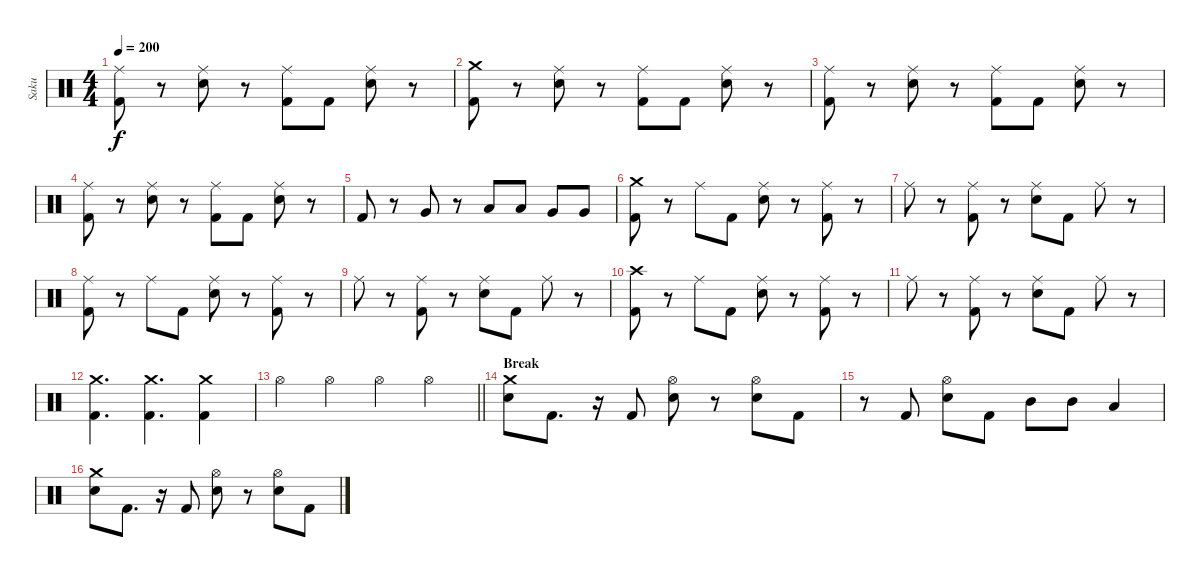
\track ("Saku" "Saku") {instrument percussion}
\staff {score}
\articulation defaults
\ts (4 4)
\tempo 200
\clef neutral
\ks c
("Ride (middle)" "Kick (hit) 2").8{dy f} r.8 ("Ride (middle)" "Electric Snare (hit)").8 r.8 ("Ride (middle)" "Kick (hit) 2").8 "Kick (hit) 2".8 ("Ride (middle)" "Electric Snare (hit)").8 r.8 |
("Crash medium (hit)" "Kick (hit) 2").8 r.8 ("Ride (middle)" "Electric Snare (hit)").8 r.8 ("Ride (middle)" "Kick (hit) 2").8 "Kick (hit) 2".8 ("Ride (middle)" "Electric Snare (hit)").8 r.8 |
("Ride (middle)" "Kick (hit) 2").8 r.8 ("Ride (middle)" "Electric Snare (hit)").8 r.8 ("Ride (middle)" "Kick (hit) 2").8 "Kick (hit) 2".8 ("Ride (middle)" "Electric Snare (hit)").8 r.8 |
("Ride (middle)" "Kick (hit) 2").8 r.8 ("Ride (middle)" "Electric Snare (hit)").8 r.8 ("Ride (middle)" "Kick (hit) 2").8 "Kick (hit) 2".8 ("Ride (middle)" "Electric Snare (hit)").8 r.8 |
"Kick (hit) 2".8 r.8 "Very Low Tom (hit)".8 r.8 "Low Tom (hit)".8 "Low Tom (hit)".8 "Very Low Tom (hit)".8 "Very Low Tom (hit)".8 |
("Crash medium (hit)" "Kick (hit) 2").8 r.8 "Ride (middle)".8 "Kick (hit) 2".8 ("Ride (middle)" "Electric Snare (hit)").8 r.8 ("Ride (middle)" "Kick (hit) 2").8 r.8 |
"Ride (middle)".8 r.8 ("Ride (middle)" "Kick (hit) 2").8 r.8 ("Ride (middle)" "Electric Snare (hit)").8 "Kick (hit) 2".8 "Ride (middle)".8 r.8 |
("Ride (middle)" "Kick (hit) 2").8 r.8 "Ride (middle)".8 "Kick (hit) 2".8 ("Ride (middle)" "Electric Snare (hit)").8 r.8 ("Ride (middle)" "Kick (hit) 2").8 r.8 |
"Ride (middle)".8 r.8 ("Ride (middle)" "Kick (hit) 2").8 r.8 ("Ride (middle)" "Electric Snare (hit)").8 "Kick (hit) 2".8 "Ride (middle)".8 r.8 |
("Crash high (hit)" "Kick (hit) 2").8 r.8 "Ride (middle)".8 "Kick (hit) 2".8 ("Ride (middle)" "Electric Snare (hit)").8 r.8 ("Ride (middle)" "Kick (hit) 2").8 r.8 |
"Ride (middle)".8 r.8 ("Ride (middle)" "Kick (hit) 2").8 r.8 ("Ride (middle)" "Electric Snare (hit)").8 "Kick (hit) 2".8 "Ride (middle)".8 r.8 |
("Crash medium (hit)" "Kick (hit) 2").4{d} ("Crash medium (hit)" "Kick (hit) 2").4{d} ("Crash medium (hit)" "Kick (hit) 2").4 |
\barLineRight lightlight "Hi-Hat (open)".4 "Hi-Hat (open)".4 "Hi-Hat (open)".4 "Hi-Hat (open)".4
|
\section ("" "Break")
("Crash medium (hit)" "Electric Snare (hit)").8 "Kick (hit) 2".8{d} r.16 "Kick (hit) 2".8 ("Hi-Hat (open)" "Electric Snare (hit)").8 r.8 ("Hi-Hat (open)" "Electric Snare (hit)").8 "Kick (hit) 2".8 |
r.8 "Kick (hit) 2".8 ("Hi-Hat (open)" "Electric Snare (hit)").8 "Kick (hit) 2".8 "Mid Tom (hit)".8 "Mid Tom (hit)".8 "Low Tom (hit)".4 |
("Crash medium (hit)" "Electric Snare (hit)").8 "Kick (hit) 2".8{d} r.16 "Kick (hit) 2".8 ("Hi-Hat (open)" "Electric Snare (hit)").8 r.8 ("Hi-Hat (open)" "Electric Snare (hit)").8 "Kick (hit) 2".8
